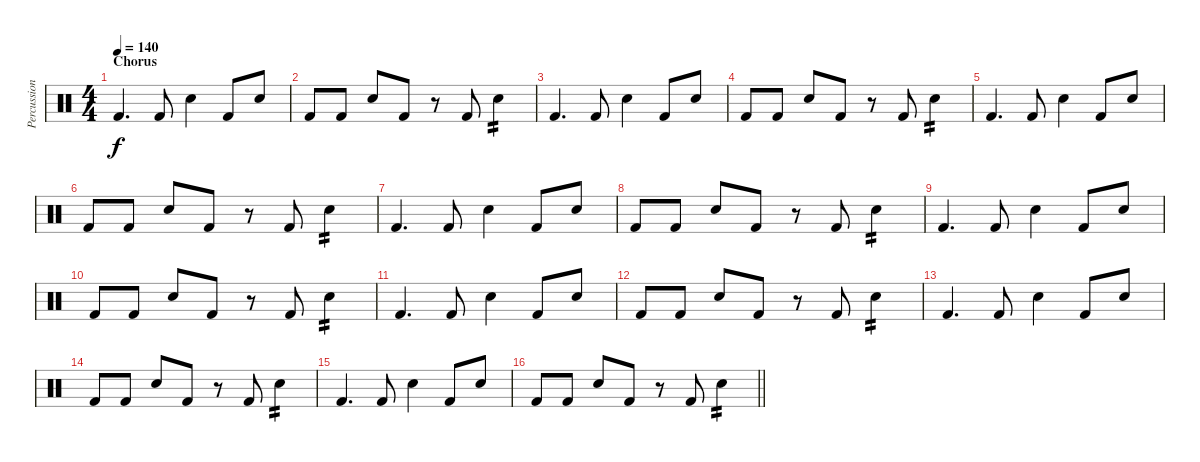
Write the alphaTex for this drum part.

\track ("Percussion" "Percussion") {instrument percussion}
\staff {score}
\articulation defaults
\ts (4 4)
\section ("" "Chorus")
\tempo 140
\clef neutral
\ks c "Kick (hit) 2".4{d dy f} "Kick (hit) 2".8 "Electric Snare (hit)".4 "Kick (hit) 2".8 "Electric Snare (hit)".8
|
"Kick (hit) 2".8 "Kick (hit) 2".8 "Electric Snare (hit)".8 "Kick (hit) 2".8 r.8 "Kick (hit) 2".8 "Electric Snare (hit)".4{tp 2} |
"Kick (hit) 2".4{d} "Kick (hit) 2".8 "Electric Snare (hit)".4 "Kick (hit) 2".8 "Electric Snare (hit)".8 |
"Kick (hit) 2".8 "Kick (hit) 2".8 "Electric Snare (hit)".8 "Kick (hit) 2".8 r.8 "Kick (hit) 2".8 "Electric Snare (hit)".4{tp 2} |
"Kick (hit) 2".4{d} "Kick (hit) 2".8 "Electric Snare (hit)".4 "Kick (hit) 2".8 "Electric Snare (hit)".8 |
"Kick (hit) 2".8 "Kick (hit) 2".8 "Electric Snare (hit)".8 "Kick (hit) 2".8 r.8 "Kick (hit) 2".8 "Electric Snare (hit)".4{tp 2} |
"Kick (hit) 2".4{d} "Kick (hit) 2".8 "Electric Snare (hit)".4 "Kick (hit) 2".8 "Electric Snare (hit)".8 |
"Kick (hit) 2".8 "Kick (hit) 2".8 "Electric Snare (hit)".8 "Kick (hit) 2".8 r.8 "Kick (hit) 2".8 "Electric Snare (hit)".4{tp 2} |
"Kick (hit) 2".4{d} "Kick (hit) 2".8 "Electric Snare (hit)".4 "Kick (hit) 2".8 "Electric Snare (hit)".8 |
"Kick (hit) 2".8 "Kick (hit) 2".8 "Electric Snare (hit)".8 "Kick (hit) 2".8 r.8 "Kick (hit) 2".8 "Electric Snare (hit)".4{tp 2} |
"Kick (hit) 2".4{d} "Kick (hit) 2".8 "Electric Snare (hit)".4 "Kick (hit) 2".8 "Electric Snare (hit)".8 |
"Kick (hit) 2".8 "Kick (hit) 2".8 "Electric Snare (hit)".8 "Kick (hit) 2".8 r.8 "Kick (hit) 2".8 "Electric Snare (hit)".4{tp 2} |
"Kick (hit) 2".4{d} "Kick (hit) 2".8 "Electric Snare (hit)".4 "Kick (hit) 2".8 "Electric Snare (hit)".8 |
"Kick (hit) 2".8 "Kick (hit) 2".8 "Electric Snare (hit)".8 "Kick (hit) 2".8 r.8 "Kick (hit) 2".8 "Electric Snare (hit)".4{tp 2} |
"Kick (hit) 2".4{d} "Kick (hit) 2".8 "Electric Snare (hit)".4 "Kick (hit) 2".8 "Electric Snare (hit)".8 |
\barLineRight lightlight "Kick (hit) 2".8 "Kick (hit) 2".8 "Electric Snare (hit)".8 "Kick (hit) 2".8
r.8 "Kick (hit) 2".8 "Electric Snare (hit)".4{tp 2}
